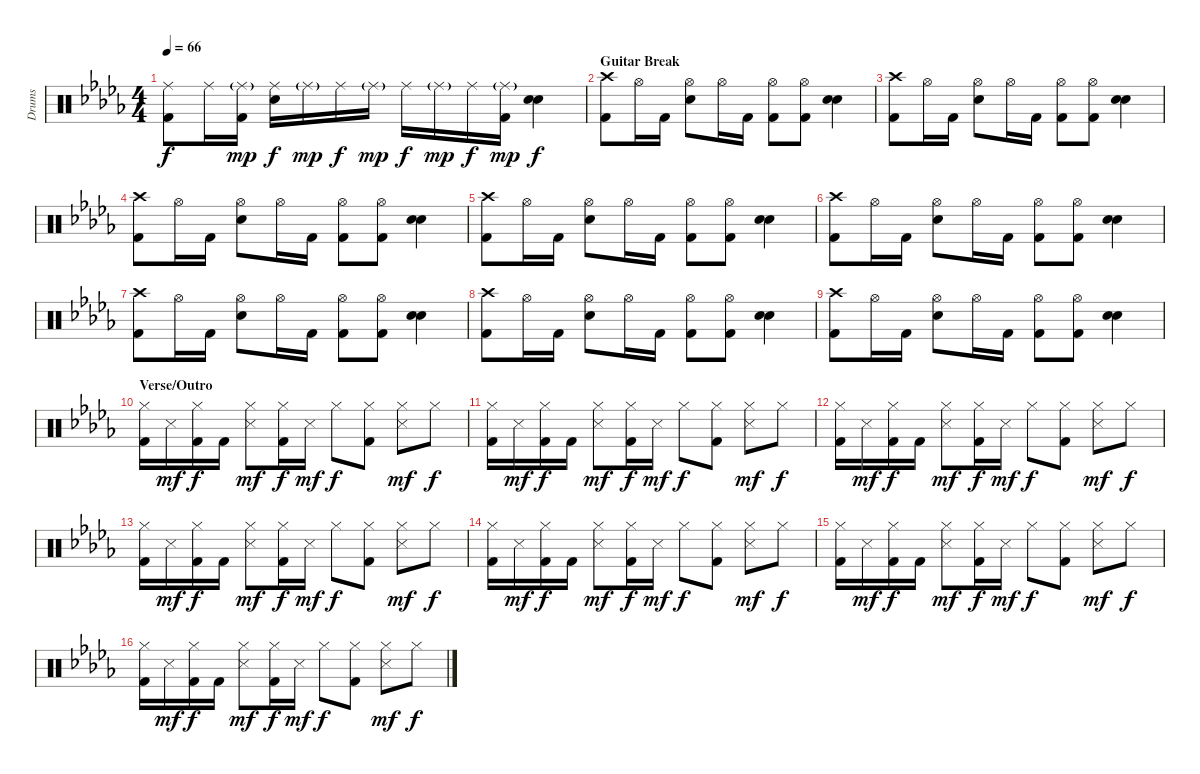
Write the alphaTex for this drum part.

\track ("Drums" "Drums") {instrument percussion}
\staff {score}
\articulation defaults
\ts (4 4)
\tempo 66
\clef neutral
\ks db
("Kick (hit) 2" "Ride (middle)").8{dy f} "Ride (middle)".16 ("Kick (hit) 2" "Ride (middle)"{g}).16{dy mp} ("Ride (middle)" "Snare (hit) 2").16{dy f} "Ride (middle)"{g}.16{dy mp} "Ride (middle)".16{dy f} "Ride (middle)"{g}.16{dy mp} "Ride (middle)".16{dy f} "Ride (middle)"{g}.16{dy mp} "Ride (middle)".16{dy f} ("Kick (hit) 2" "Ride (middle)"{g}).16{dy mp} ("Snare (hit) 2" "Snare (hit) 2").4{bd 120 dy f} |
\section ("" "Guitar Break")
("Kick (hit) 2" "Crash high (hit)").8 "Hi-Hat (open)".16 "Kick (hit) 2".16 ("Snare (hit) 2" "Hi-Hat (open)").8 "Hi-Hat (open)".16 "Kick (hit) 2".16 ("Kick (hit) 2" "Hi-Hat (open)").8 ("Kick (hit) 2" "Hi-Hat (open)").8 ("Snare (hit) 2" "Snare (hit) 2").4{bd 120} |
("Kick (hit) 2" "Crash high (hit)").8 "Hi-Hat (open)".16 "Kick (hit) 2".16 ("Snare (hit) 2" "Hi-Hat (open)").8 "Hi-Hat (open)".16 "Kick (hit) 2".16 ("Kick (hit) 2" "Hi-Hat (open)").8 ("Kick (hit) 2" "Hi-Hat (open)").8 ("Snare (hit) 2" "Snare (hit) 2").4{bd 120} |
("Kick (hit) 2" "Crash high (hit)").8 "Hi-Hat (open)".16 "Kick (hit) 2".16 ("Snare (hit) 2" "Hi-Hat (open)").8 "Hi-Hat (open)".16 "Kick (hit) 2".16 ("Kick (hit) 2" "Hi-Hat (open)").8 ("Kick (hit) 2" "Hi-Hat (open)").8 ("Snare (hit) 2" "Snare (hit) 2").4{bd 120} |
("Kick (hit) 2" "Crash high (hit)").8 "Hi-Hat (open)".16 "Kick (hit) 2".16 ("Snare (hit) 2" "Hi-Hat (open)").8 "Hi-Hat (open)".16 "Kick (hit) 2".16 ("Kick (hit) 2" "Hi-Hat (open)").8 ("Kick (hit) 2" "Hi-Hat (open)").8 ("Snare (hit) 2" "Snare (hit) 2").4{bd 120} |
("Kick (hit) 2" "Crash high (hit)").8 "Hi-Hat (open)".16 "Kick (hit) 2".16 ("Snare (hit) 2" "Hi-Hat (open)").8 "Hi-Hat (open)".16 "Kick (hit) 2".16 ("Kick (hit) 2" "Hi-Hat (open)").8 ("Kick (hit) 2" "Hi-Hat (open)").8 ("Snare (hit) 2" "Snare (hit) 2").4{bd 120} |
("Kick (hit) 2" "Crash high (hit)").8 "Hi-Hat (open)".16 "Kick (hit) 2".16 ("Snare (hit) 2" "Hi-Hat (open)").8 "Hi-Hat (open)".16 "Kick (hit) 2".16 ("Kick (hit) 2" "Hi-Hat (open)").8 ("Kick (hit) 2" "Hi-Hat (open)").8 ("Snare (hit) 2" "Snare (hit) 2").4{bd 120} |
("Kick (hit) 2" "Crash high (hit)").8 "Hi-Hat (open)".16 "Kick (hit) 2".16 ("Snare (hit) 2" "Hi-Hat (open)").8 "Hi-Hat (open)".16 "Kick (hit) 2".16 ("Kick (hit) 2" "Hi-Hat (open)").8 ("Kick (hit) 2" "Hi-Hat (open)").8 ("Snare (hit) 2" "Snare (hit) 2").4{bd 120} |
("Kick (hit) 2" "Crash high (hit)").8 "Hi-Hat (open)".16 "Kick (hit) 2".16 ("Snare (hit) 2" "Hi-Hat (open)").8 "Hi-Hat (open)".16 "Kick (hit) 2".16 ("Kick (hit) 2" "Hi-Hat (open)").8 ("Kick (hit) 2" "Hi-Hat (open)").8 ("Snare (hit) 2" "Snare (hit) 2").4{bd 120} |
\section ("" "Verse/Outro")
("Kick (hit) 2" "Hi-Hat (closed)").16{volume 8} "Snare (side stick) 3".16{dy mf} ("Kick (hit) 2" "Hi-Hat (closed)").16{dy f} "Kick (hit) 2".16 ("Snare (side stick) 3" "Hi-Hat (closed)").8{dy mf} ("Kick (hit) 2" "Hi-Hat (closed)").16{dy f} "Snare (side stick) 3".16{dy mf} "Hi-Hat (closed)".8{dy f} ("Kick (hit) 2" "Hi-Hat (closed)").8 ("Snare (side stick) 3" "Hi-Hat (closed)").8{dy mf} "Hi-Hat (closed)".8{dy f} |
("Kick (hit) 2" "Hi-Hat (closed)").16 "Snare (side stick) 3".16{dy mf} ("Kick (hit) 2" "Hi-Hat (closed)").16{dy f} "Kick (hit) 2".16 ("Snare (side stick) 3" "Hi-Hat (closed)").8{dy mf} ("Kick (hit) 2" "Hi-Hat (closed)").16{dy f} "Snare (side stick) 3".16{dy mf} "Hi-Hat (closed)".8{dy f} ("Kick (hit) 2" "Hi-Hat (closed)").8 ("Snare (side stick) 3" "Hi-Hat (closed)").8{dy mf} "Hi-Hat (closed)".8{dy f} |
("Kick (hit) 2" "Hi-Hat (closed)").16 "Snare (side stick) 3".16{dy mf} ("Kick (hit) 2" "Hi-Hat (closed)").16{dy f} "Kick (hit) 2".16 ("Snare (side stick) 3" "Hi-Hat (closed)").8{dy mf} ("Kick (hit) 2" "Hi-Hat (closed)").16{dy f} "Snare (side stick) 3".16{dy mf} "Hi-Hat (closed)".8{dy f} ("Kick (hit) 2" "Hi-Hat (closed)").8 ("Snare (side stick) 3" "Hi-Hat (closed)").8{dy mf} "Hi-Hat (closed)".8{dy f} |
("Kick (hit) 2" "Hi-Hat (closed)").16 "Snare (side stick) 3".16{dy mf} ("Kick (hit) 2" "Hi-Hat (closed)").16{dy f} "Kick (hit) 2".16 ("Snare (side stick) 3" "Hi-Hat (closed)").8{dy mf} ("Kick (hit) 2" "Hi-Hat (closed)").16{dy f} "Snare (side stick) 3".16{dy mf} "Hi-Hat (closed)".8{dy f} ("Kick (hit) 2" "Hi-Hat (closed)").8 ("Snare (side stick) 3" "Hi-Hat (closed)").8{dy mf} "Hi-Hat (closed)".8{dy f} |
("Kick (hit) 2" "Hi-Hat (closed)").16{volume 8} "Snare (side stick) 3".16{dy mf} ("Kick (hit) 2" "Hi-Hat (closed)").16{dy f} "Kick (hit) 2".16 ("Snare (side stick) 3" "Hi-Hat (closed)").8{dy mf} ("Kick (hit) 2" "Hi-Hat (closed)").16{dy f} "Snare (side stick) 3".16{dy mf} "Hi-Hat (closed)".8{dy f} ("Kick (hit) 2" "Hi-Hat (closed)").8 ("Snare (side stick) 3" "Hi-Hat (closed)").8{dy mf} "Hi-Hat (closed)".8{dy f} |
("Kick (hit) 2" "Hi-Hat (closed)").16 "Snare (side stick) 3".16{dy mf} ("Kick (hit) 2" "Hi-Hat (closed)").16{dy f} "Kick (hit) 2".16 ("Snare (side stick) 3" "Hi-Hat (closed)").8{dy mf} ("Kick (hit) 2" "Hi-Hat (closed)").16{dy f} "Snare (side stick) 3".16{dy mf} "Hi-Hat (closed)".8{dy f} ("Kick (hit) 2" "Hi-Hat (closed)").8 ("Snare (side stick) 3" "Hi-Hat (closed)").8{dy mf} "Hi-Hat (closed)".8{dy f} |
("Kick (hit) 2" "Hi-Hat (closed)").16 "Snare (side stick) 3".16{dy mf} ("Kick (hit) 2" "Hi-Hat (closed)").16{dy f} "Kick (hit) 2".16 ("Snare (side stick) 3" "Hi-Hat (closed)").8{dy mf} ("Kick (hit) 2" "Hi-Hat (closed)").16{dy f} "Snare (side stick) 3".16{dy mf} "Hi-Hat (closed)".8{dy f} ("Kick (hit) 2" "Hi-Hat (closed)").8 ("Snare (side stick) 3" "Hi-Hat (closed)").8{dy mf} "Hi-Hat (closed)".8{dy f}
